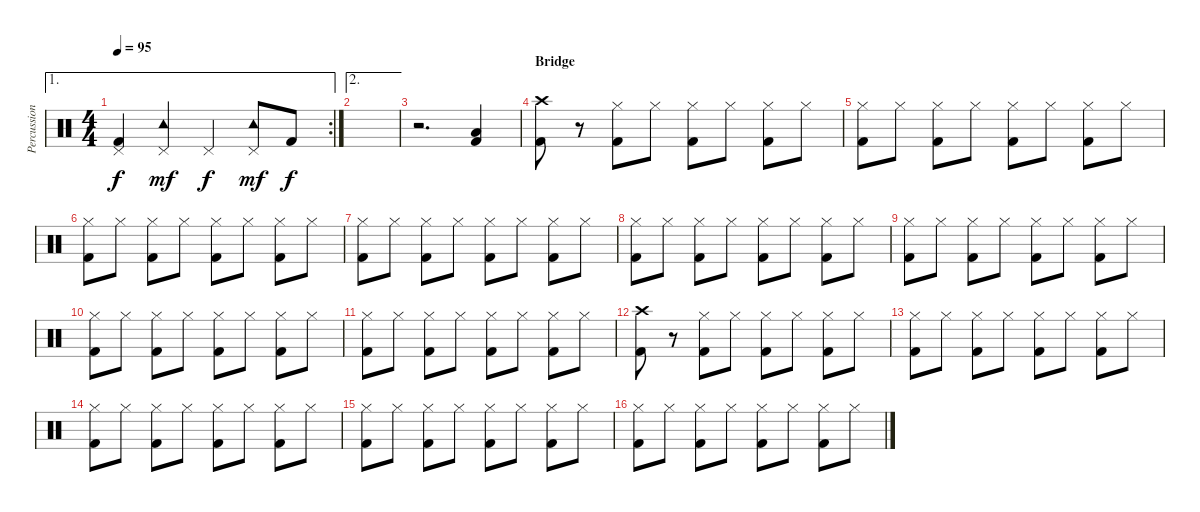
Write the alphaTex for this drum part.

\track ("Percussion" "Percussion") {instrument percussion}
\staff {score}
\articulation defaults
\ae 1
\rc 2
\ts (4 4)
\tempo 95
\clef neutral
\ks c
("Pedal Hi-Hat (hit)" "Kick (hit) 2").4{dy f} ("Tambourine (hit)" "Pedal Hi-Hat (hit)").4{dy mf} "Pedal Hi-Hat (hit)".4{dy f} ("Tambourine (hit)" "Pedal Hi-Hat (hit)").8{dy mf} "Kick (hit) 2".8{dy f} |
\ae 2
|
r.2{d} ("Low Floor Tom (hit)" "Kick (hit) 2").4{volume 13} |
\section ("" "Bridge")
("Crash high (hit)" "Kick (hit) 2").8{volume 16} r.8 ("Hi-Hat (closed)" "Kick (hit) 2").8 "Hi-Hat (closed)".8 ("Hi-Hat (closed)" "Kick (hit) 2").8 "Hi-Hat (closed)".8 ("Hi-Hat (closed)" "Kick (hit) 2").8 "Hi-Hat (closed)".8 |
("Hi-Hat (closed)" "Kick (hit) 2").8{volume 13} "Hi-Hat (closed)".8 ("Hi-Hat (closed)" "Kick (hit) 2").8 "Hi-Hat (closed)".8 ("Hi-Hat (closed)" "Kick (hit) 2").8 "Hi-Hat (closed)".8 ("Hi-Hat (closed)" "Kick (hit) 2").8 "Hi-Hat (closed)".8 |
("Hi-Hat (closed)" "Kick (hit) 2").8{volume 13} "Hi-Hat (closed)".8 ("Hi-Hat (closed)" "Kick (hit) 2").8 "Hi-Hat (closed)".8 ("Hi-Hat (closed)" "Kick (hit) 2").8 "Hi-Hat (closed)".8 ("Hi-Hat (closed)" "Kick (hit) 2").8 "Hi-Hat (closed)".8 |
("Hi-Hat (closed)" "Kick (hit) 2").8{volume 13} "Hi-Hat (closed)".8 ("Hi-Hat (closed)" "Kick (hit) 2").8 "Hi-Hat (closed)".8 ("Hi-Hat (closed)" "Kick (hit) 2").8 "Hi-Hat (closed)".8 ("Hi-Hat (closed)" "Kick (hit) 2").8 "Hi-Hat (closed)".8 |
("Hi-Hat (closed)" "Kick (hit) 2").8{volume 13} "Hi-Hat (closed)".8 ("Hi-Hat (closed)" "Kick (hit) 2").8 "Hi-Hat (closed)".8 ("Hi-Hat (closed)" "Kick (hit) 2").8 "Hi-Hat (closed)".8 ("Hi-Hat (closed)" "Kick (hit) 2").8 "Hi-Hat (closed)".8 |
("Hi-Hat (closed)" "Kick (hit) 2").8{volume 13} "Hi-Hat (closed)".8 ("Hi-Hat (closed)" "Kick (hit) 2").8 "Hi-Hat (closed)".8 ("Hi-Hat (closed)" "Kick (hit) 2").8 "Hi-Hat (closed)".8 ("Hi-Hat (closed)" "Kick (hit) 2").8 "Hi-Hat (closed)".8 |
("Hi-Hat (closed)" "Kick (hit) 2").8{volume 13} "Hi-Hat (closed)".8 ("Hi-Hat (closed)" "Kick (hit) 2").8 "Hi-Hat (closed)".8 ("Hi-Hat (closed)" "Kick (hit) 2").8 "Hi-Hat (closed)".8 ("Hi-Hat (closed)" "Kick (hit) 2").8 "Hi-Hat (closed)".8 |
("Hi-Hat (closed)" "Kick (hit) 2").8{volume 13} "Hi-Hat (closed)".8 ("Hi-Hat (closed)" "Kick (hit) 2").8 "Hi-Hat (closed)".8 ("Hi-Hat (closed)" "Kick (hit) 2").8 "Hi-Hat (closed)".8 ("Hi-Hat (closed)" "Kick (hit) 2").8 "Hi-Hat (closed)".8 |
("Crash high (hit)" "Kick (hit) 2").8{volume 13} r.8 ("Hi-Hat (closed)" "Kick (hit) 2").8 "Hi-Hat (closed)".8 ("Hi-Hat (closed)" "Kick (hit) 2").8 "Hi-Hat (closed)".8 ("Hi-Hat (closed)" "Kick (hit) 2").8 "Hi-Hat (closed)".8 |
("Hi-Hat (closed)" "Kick (hit) 2").8{volume 13} "Hi-Hat (closed)".8 ("Hi-Hat (closed)" "Kick (hit) 2").8 "Hi-Hat (closed)".8 ("Hi-Hat (closed)" "Kick (hit) 2").8 "Hi-Hat (closed)".8 ("Hi-Hat (closed)" "Kick (hit) 2").8 "Hi-Hat (closed)".8 |
("Hi-Hat (closed)" "Kick (hit) 2").8{volume 13} "Hi-Hat (closed)".8 ("Hi-Hat (closed)" "Kick (hit) 2").8 "Hi-Hat (closed)".8 ("Hi-Hat (closed)" "Kick (hit) 2").8 "Hi-Hat (closed)".8 ("Hi-Hat (closed)" "Kick (hit) 2").8 "Hi-Hat (closed)".8 |
("Hi-Hat (closed)" "Kick (hit) 2").8{volume 13} "Hi-Hat (closed)".8 ("Hi-Hat (closed)" "Kick (hit) 2").8 "Hi-Hat (closed)".8 ("Hi-Hat (closed)" "Kick (hit) 2").8 "Hi-Hat (closed)".8 ("Hi-Hat (closed)" "Kick (hit) 2").8 "Hi-Hat (closed)".8 |
("Hi-Hat (closed)" "Kick (hit) 2").8{volume 13} "Hi-Hat (closed)".8 ("Hi-Hat (closed)" "Kick (hit) 2").8 "Hi-Hat (closed)".8 ("Hi-Hat (closed)" "Kick (hit) 2").8 "Hi-Hat (closed)".8 ("Hi-Hat (closed)" "Kick (hit) 2").8 "Hi-Hat (closed)".8
